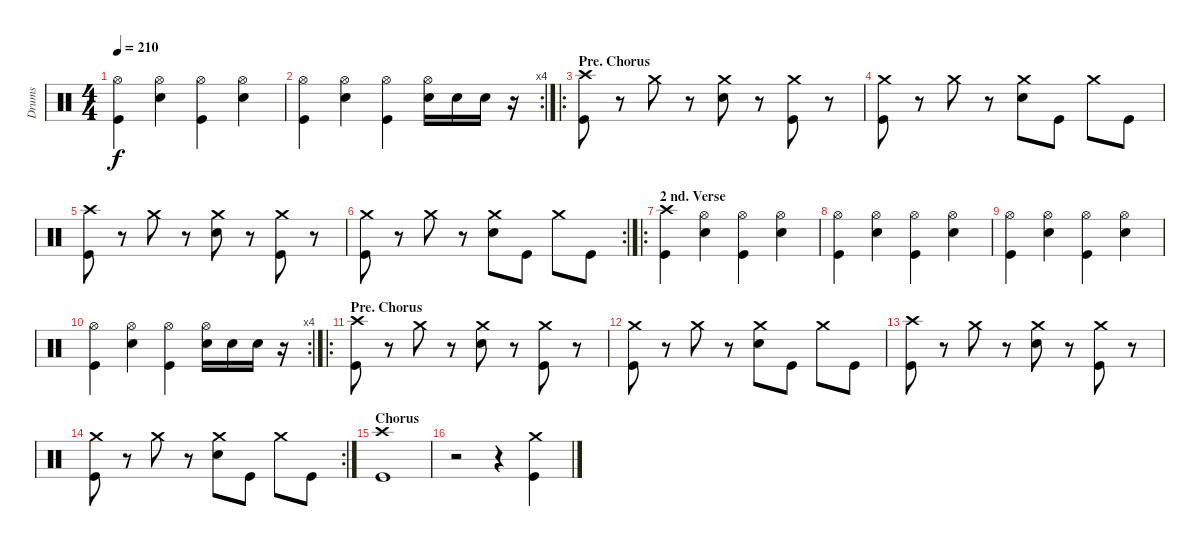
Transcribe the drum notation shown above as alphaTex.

\track ("Drums" "Drums") {instrument percussion}
\staff {score}
\articulation defaults
\ts (4 4)
\tempo 210
\clef neutral
\ks c
("Hi-Hat (open)" "Kick (hit)").4{dy f} ("Hi-Hat (open)" "Snare (hit) 2").4 ("Hi-Hat (open)" "Kick (hit)").4 ("Hi-Hat (open)" "Snare (hit) 2").4 |
\rc 4
("Hi-Hat (open)" "Kick (hit)").4 ("Hi-Hat (open)" "Snare (hit) 2").4 ("Hi-Hat (open)" "Kick (hit)").4 ("Hi-Hat (open)" "Snare (hit) 2").16 "Snare (hit) 2".16 "Snare (hit) 2".16 r.16 |
\ro
\section ("" "Pre. Chorus")
("Crash high (hit)" "Kick (hit)").8 r.8 "Crash medium (hit)".8 r.8 ("Crash medium (hit)" "Snare (hit) 2").8 r.8 ("Crash medium (hit)" "Kick (hit)").8 r.8 |
("Crash medium (hit)" "Kick (hit)").8 r.8 "Crash medium (hit)".8 r.8 ("Crash medium (hit)" "Snare (hit) 2").8 "Kick (hit)".8 "Crash medium (hit)".8 "Kick (hit)".8 |
("Crash high (hit)" "Kick (hit)").8 r.8 "Crash medium (hit)".8 r.8 ("Crash medium (hit)" "Snare (hit) 2").8 r.8 ("Crash medium (hit)" "Kick (hit)").8 r.8 |
\rc 2
("Crash medium (hit)" "Kick (hit)").8 r.8 "Crash medium (hit)".8 r.8 ("Crash medium (hit)" "Snare (hit) 2").8 "Kick (hit)".8 "Crash medium (hit)".8 "Kick (hit)".8 |
\ro
\section ("" "2 nd. Verse")
("Crash high (hit)" "Kick (hit)").4 ("Hi-Hat (open)" "Snare (hit) 2").4 ("Hi-Hat (open)" "Kick (hit)").4 ("Hi-Hat (open)" "Snare (hit) 2").4 |
("Hi-Hat (open)" "Kick (hit)").4 ("Hi-Hat (open)" "Snare (hit) 2").4 ("Hi-Hat (open)" "Kick (hit)").4 ("Hi-Hat (open)" "Snare (hit) 2").4 |
("Hi-Hat (open)" "Kick (hit)").4 ("Hi-Hat (open)" "Snare (hit) 2").4 ("Hi-Hat (open)" "Kick (hit)").4 ("Hi-Hat (open)" "Snare (hit) 2").4 |
\rc 4
("Hi-Hat (open)" "Kick (hit)").4 ("Hi-Hat (open)" "Snare (hit) 2").4 ("Hi-Hat (open)" "Kick (hit)").4 ("Hi-Hat (open)" "Snare (hit) 2").16 "Snare (hit) 2".16 "Snare (hit) 2".16 r.16 |
\ro
\section ("" "Pre. Chorus")
("Crash high (hit)" "Kick (hit)").8 r.8 "Crash medium (hit)".8 r.8 ("Crash medium (hit)" "Snare (hit) 2").8 r.8 ("Crash medium (hit)" "Kick (hit)").8 r.8 |
("Crash medium (hit)" "Kick (hit)").8 r.8 "Crash medium (hit)".8 r.8 ("Crash medium (hit)" "Snare (hit) 2").8 "Kick (hit)".8 "Crash medium (hit)".8 "Kick (hit)".8 |
("Crash high (hit)" "Kick (hit)").8 r.8 "Crash medium (hit)".8 r.8 ("Crash medium (hit)" "Snare (hit) 2").8 r.8 ("Crash medium (hit)" "Kick (hit)").8 r.8 |
\rc 2
("Crash medium (hit)" "Kick (hit)").8 r.8 "Crash medium (hit)".8 r.8 ("Crash medium (hit)" "Snare (hit) 2").8 "Kick (hit)".8 "Crash medium (hit)".8 "Kick (hit)".8 |
\section ("" "Chorus")
("Crash high (hit)" "Kick (hit)").1 |
r.2 r.4 ("Crash medium (hit)" "Kick (hit)").4
